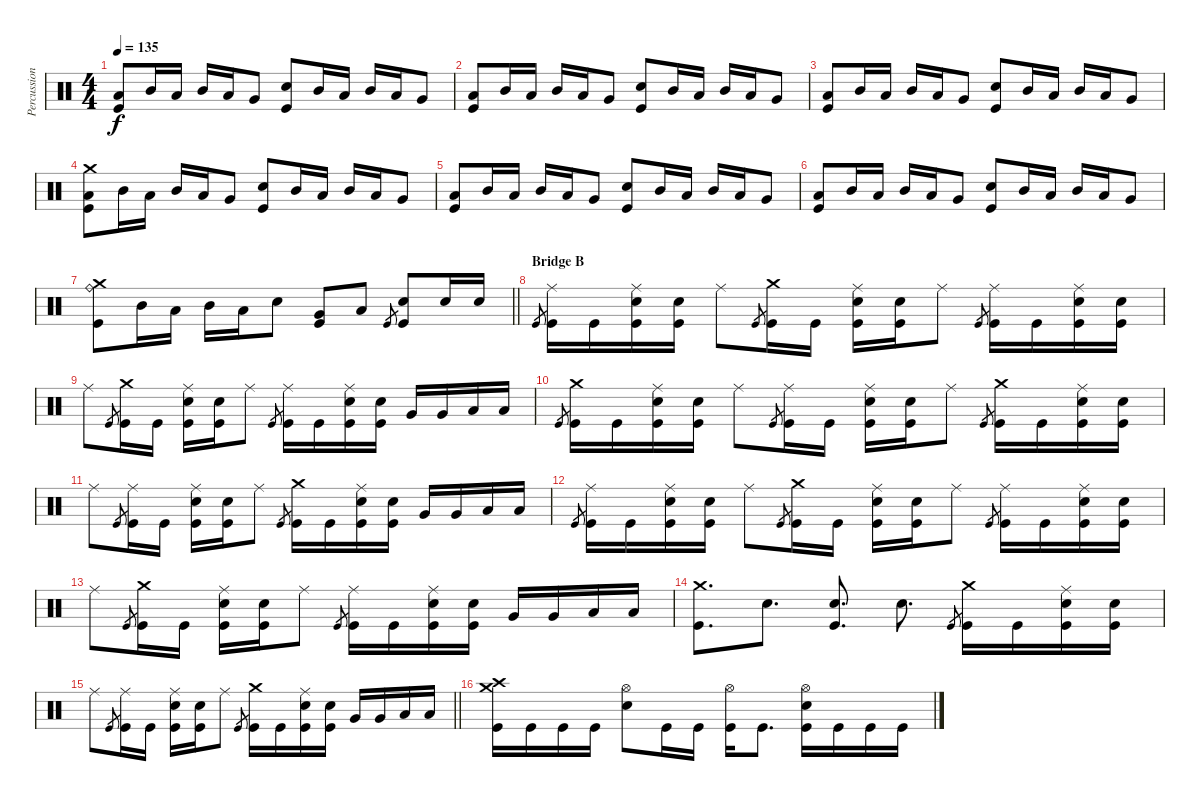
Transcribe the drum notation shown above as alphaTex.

\track ("Percussion" "Percussion") {instrument percussion}
\staff {score}
\articulation defaults
\ts (4 4)
\tempo 135
\clef neutral
\ks c
("Low Tom (hit)" "Kick (hit)").8{dy f} "Mid Tom (hit)".16 "Low Tom (hit)".16 "Mid Tom (hit)".16 "Low Tom (hit)".16 "Very Low Tom (hit)".8 ("Electric Snare (hit)" "Kick (hit)").8 "Mid Tom (hit)".16 "Low Tom (hit)".16 "Mid Tom (hit)".16 "Low Tom (hit)".16 "Very Low Tom (hit)".8 |
("Low Tom (hit)" "Kick (hit)").8 "Mid Tom (hit)".16 "Low Tom (hit)".16 "Mid Tom (hit)".16 "Low Tom (hit)".16 "Very Low Tom (hit)".8 ("Electric Snare (hit)" "Kick (hit)").8 "Mid Tom (hit)".16 "Low Tom (hit)".16 "Mid Tom (hit)".16 "Low Tom (hit)".16 "Very Low Tom (hit)".8 |
("Low Tom (hit)" "Kick (hit)").8 "Mid Tom (hit)".16 "Low Tom (hit)".16 "Mid Tom (hit)".16 "Low Tom (hit)".16 "Very Low Tom (hit)".8 ("Electric Snare (hit)" "Kick (hit)").8 "Mid Tom (hit)".16 "Low Tom (hit)".16 "Mid Tom (hit)".16 "Low Tom (hit)".16 "Very Low Tom (hit)".8 |
("Crash medium (hit)" "Low Tom (hit)" "Kick (hit)").8 "Mid Tom (hit)".16 "Low Tom (hit)".16 "Mid Tom (hit)".16 "Low Tom (hit)".16 "Very Low Tom (hit)".8 ("Electric Snare (hit)" "Kick (hit)").8 "Mid Tom (hit)".16 "Low Tom (hit)".16 "Mid Tom (hit)".16 "Low Tom (hit)".16 "Very Low Tom (hit)".8 |
("Low Tom (hit)" "Kick (hit)").8 "Mid Tom (hit)".16 "Low Tom (hit)".16 "Mid Tom (hit)".16 "Low Tom (hit)".16 "Very Low Tom (hit)".8 ("Electric Snare (hit)" "Kick (hit)").8 "Mid Tom (hit)".16 "Low Tom (hit)".16 "Mid Tom (hit)".16 "Low Tom (hit)".16 "Very Low Tom (hit)".8 |
("Low Tom (hit)" "Kick (hit)").8 "Mid Tom (hit)".16 "Low Tom (hit)".16 "Mid Tom (hit)".16 "Low Tom (hit)".16 "Very Low Tom (hit)".8 ("Electric Snare (hit)" "Kick (hit)").8 "Mid Tom (hit)".16 "Low Tom (hit)".16 "Mid Tom (hit)".16 "Low Tom (hit)".16 "Very Low Tom (hit)".8 |
\barLineRight lightlight
("Crash medium (hit)" "Ride (bell)" "Kick (hit)").8 "Mid Tom (hit)".16 "Low Tom (hit)".16 "Mid Tom (hit)".16 "Low Tom (hit)".16 "Electric Snare (hit)".8 ("Very Low Tom (hit)" "Kick (hit)").8 "Low Tom (hit)".8 "Kick (hit)".8{gr} ("Electric Snare (hit)" "Kick (hit)").8 "Electric Snare (hit)".16 "Electric Snare (hit)".16 |
\section ("" "Bridge B")
"Kick (hit)".8{gr} ("Ride (middle)" "Kick (hit)").16 "Kick (hit)".16 ("Ride (middle)" "Electric Snare (hit)" "Kick (hit)").16 ("Electric Snare (hit)" "Kick (hit)").16 "Ride (middle)".8 "Kick (hit)".8{gr} ("Crash medium (hit)" "Kick (hit)").16 "Kick (hit)".16 ("Ride (middle)" "Electric Snare (hit)" "Kick (hit)").16 ("Electric Snare (hit)" "Kick (hit)").16 "Ride (middle)".8 "Kick (hit)".8{gr} ("Ride (middle)" "Kick (hit)").16 "Kick (hit)".16 ("Ride (middle)" "Electric Snare (hit)" "Kick (hit)").16 ("Electric Snare (hit)" "Kick (hit)").16 |
"Ride (middle)".8 "Kick (hit)".8{gr} ("Crash medium (hit)" "Kick (hit)").16 "Kick (hit)".16 ("Ride (middle)" "Electric Snare (hit)" "Kick (hit)").16 ("Electric Snare (hit)" "Kick (hit)").16 "Ride (middle)".8 "Kick (hit)".8{gr} ("Ride (middle)" "Kick (hit)").16 "Kick (hit)".16 ("Ride (middle)" "Electric Snare (hit)" "Kick (hit)").16 ("Electric Snare (hit)" "Kick (hit)").16 "Very Low Tom (hit)".16 "Very Low Tom (hit)".16 "Low Floor Tom (hit)".16 "Low Floor Tom (hit)".16 |
"Kick (hit)".8{gr} ("Crash medium (hit)" "Kick (hit)").16 "Kick (hit)".16 ("Ride (middle)" "Electric Snare (hit)" "Kick (hit)").16 ("Electric Snare (hit)" "Kick (hit)").16 "Ride (middle)".8 "Kick (hit)".8{gr} ("Ride (middle)" "Kick (hit)").16 "Kick (hit)".16 ("Ride (middle)" "Electric Snare (hit)" "Kick (hit)").16 ("Electric Snare (hit)" "Kick (hit)").16 "Ride (middle)".8 "Kick (hit)".8{gr} ("Crash medium (hit)" "Kick (hit)").16 "Kick (hit)".16 ("Ride (middle)" "Electric Snare (hit)" "Kick (hit)").16 ("Electric Snare (hit)" "Kick (hit)").16 |
"Ride (middle)".8 "Kick (hit)".8{gr} ("Ride (middle)" "Kick (hit)").16 "Kick (hit)".16 ("Ride (middle)" "Electric Snare (hit)" "Kick (hit)").16 ("Electric Snare (hit)" "Kick (hit)").16 "Ride (middle)".8 "Kick (hit)".8{gr} ("Crash medium (hit)" "Kick (hit)").16 "Kick (hit)".16 ("Ride (middle)" "Electric Snare (hit)" "Kick (hit)").16 ("Electric Snare (hit)" "Kick (hit)").16 "Very Low Tom (hit)".16 "Very Low Tom (hit)".16 "Low Floor Tom (hit)".16 "Low Floor Tom (hit)".16 |
"Kick (hit)".8{gr} ("Ride (middle)" "Kick (hit)").16 "Kick (hit)".16 ("Ride (middle)" "Electric Snare (hit)" "Kick (hit)").16 ("Electric Snare (hit)" "Kick (hit)").16 "Ride (middle)".8 "Kick (hit)".8{gr} ("Crash medium (hit)" "Kick (hit)").16 "Kick (hit)".16 ("Ride (middle)" "Electric Snare (hit)" "Kick (hit)").16 ("Electric Snare (hit)" "Kick (hit)").16 "Ride (middle)".8 "Kick (hit)".8{gr} ("Ride (middle)" "Kick (hit)").16 "Kick (hit)".16 ("Ride (middle)" "Electric Snare (hit)" "Kick (hit)").16 ("Electric Snare (hit)" "Kick (hit)").16 |
"Ride (middle)".8 "Kick (hit)".8{gr} ("Crash medium (hit)" "Kick (hit)").16 "Kick (hit)".16 ("Ride (middle)" "Electric Snare (hit)" "Kick (hit)").16 ("Electric Snare (hit)" "Kick (hit)").16 "Ride (middle)".8 "Kick (hit)".8{gr} ("Ride (middle)" "Kick (hit)").16 "Kick (hit)".16 ("Ride (middle)" "Electric Snare (hit)" "Kick (hit)").16 ("Electric Snare (hit)" "Kick (hit)").16 "Very Low Tom (hit)".16 "Very Low Tom (hit)".16 "Low Floor Tom (hit)".16 "Low Floor Tom (hit)".16 |
("Crash medium (hit)" "Kick (hit)").8{d} "Electric Snare (hit)".8{d} ("Electric Snare (hit)" "Kick (hit)").8{d} "Electric Snare (hit)".8{d} "Kick (hit)".8{gr} ("Crash medium (hit)" "Kick (hit)").16 "Kick (hit)".16 ("Ride (middle)" "Electric Snare (hit)" "Kick (hit)").16 ("Electric Snare (hit)" "Kick (hit)").16 |
\barLineRight lightlight "Ride (middle)".8 "Kick (hit)".8{gr}
("Ride (middle)" "Kick (hit)").16 "Kick (hit)".16 ("Ride (middle)" "Electric Snare (hit)" "Kick (hit)").16 ("Electric Snare (hit)" "Kick (hit)").16 "Ride (middle)".8 "Kick (hit)".8{gr} ("Crash medium (hit)" "Kick (hit)").16 "Kick (hit)".16 ("Ride (middle)" "Electric Snare (hit)" "Kick (hit)").16 ("Electric Snare (hit)" "Kick (hit)").16 "Very Low Tom (hit)".16 "Very Low Tom (hit)".16 "Low Floor Tom (hit)".16 "Low Floor Tom (hit)".16 |
("Crash high (hit)" "Crash medium (hit)" "Kick (hit)").16 "Kick (hit)".16 "Kick (hit)".16 "Kick (hit)".16 ("Hi-Hat (open)" "Electric Snare (hit)").8 "Kick (hit)".16 "Kick (hit)".16 ("Hi-Hat (open)" "Kick (hit)").16 "Kick (hit)".8{d} ("Hi-Hat (open)" "Electric Snare (hit)" "Kick (hit)").16 "Kick (hit)".16 "Kick (hit)".16 "Kick (hit)".16
